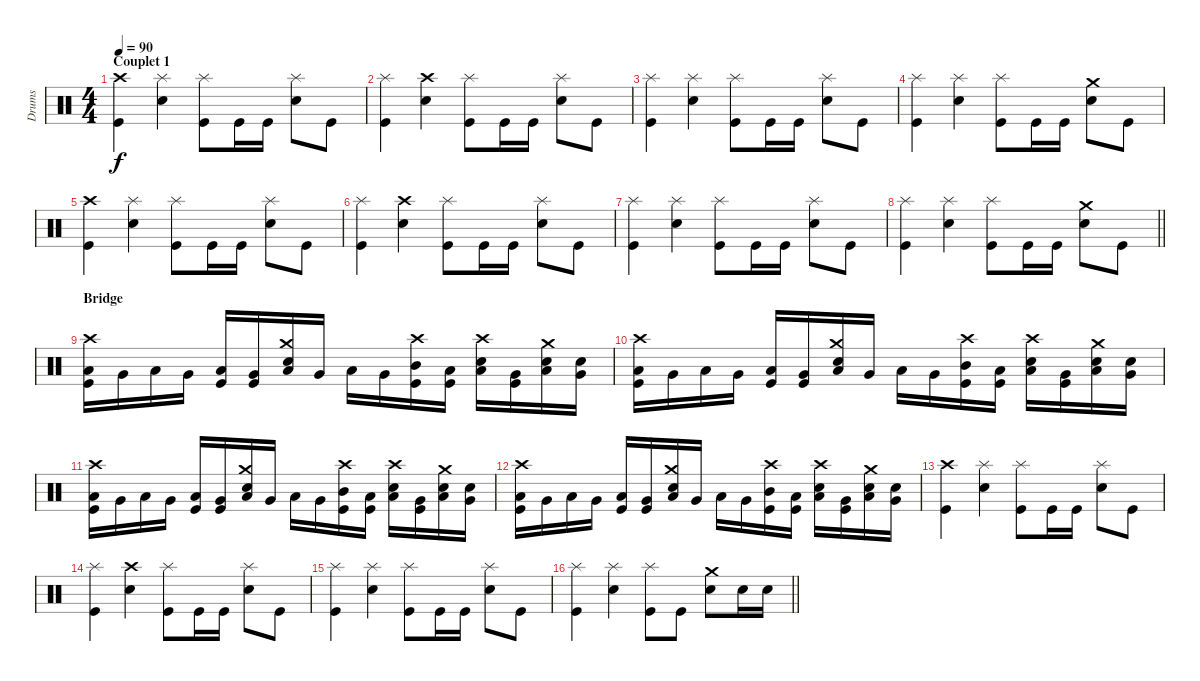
\track ("Drums" "Drums") {instrument percussion}
\staff {score}
\articulation defaults
\ts (4 4)
\section ("" "Couplet 1")
\tempo 90
\clef neutral
\ks c
("Crash high (hit)" "Kick (hit)").4{dy f} ("Splash (hit)" "Snare (hit) 2").4 ("Splash (hit)" "Kick (hit)").8 "Kick (hit)".16 "Kick (hit)".16 ("Splash (hit)" "Snare (hit) 2").8 "Kick (hit)".8 |
("Splash (hit)" "Kick (hit)").4 ("Crash high (hit)" "Snare (hit) 2").4 ("Splash (hit)" "Kick (hit)").8 "Kick (hit)".16 "Kick (hit)".16 ("Splash (hit)" "Snare (hit) 2").8 "Kick (hit)".8 |
("Splash (hit)" "Kick (hit)").4 ("Splash (hit)" "Snare (hit) 2").4 ("Splash (hit)" "Kick (hit)").8 "Kick (hit)".16 "Kick (hit)".16 ("Splash (hit)" "Snare (hit) 2").8 "Kick (hit)".8 |
("Splash (hit)" "Kick (hit)").4 ("Splash (hit)" "Snare (hit) 2").4 ("Splash (hit)" "Kick (hit)").8 "Kick (hit)".16 "Kick (hit)".16 ("Crash medium (hit)" "Snare (hit) 2").8 "Kick (hit)".8 |
("Crash high (hit)" "Kick (hit)").4 ("Splash (hit)" "Snare (hit) 2").4 ("Splash (hit)" "Kick (hit)").8 "Kick (hit)".16 "Kick (hit)".16 ("Splash (hit)" "Snare (hit) 2").8 "Kick (hit)".8 |
("Splash (hit)" "Kick (hit)").4 ("Crash high (hit)" "Snare (hit) 2").4 ("Splash (hit)" "Kick (hit)").8 "Kick (hit)".16 "Kick (hit)".16 ("Splash (hit)" "Snare (hit) 2").8 "Kick (hit)".8 |
("Splash (hit)" "Kick (hit)").4 ("Splash (hit)" "Snare (hit) 2").4 ("Splash (hit)" "Kick (hit)").8 "Kick (hit)".16 "Kick (hit)".16 ("Splash (hit)" "Snare (hit) 2").8 "Kick (hit)".8 |
\barLineRight lightlight
("Splash (hit)" "Kick (hit)").4 ("Splash (hit)" "Snare (hit) 2").4 ("Splash (hit)" "Kick (hit)").8 "Kick (hit)".16 "Kick (hit)".16 ("Crash medium (hit)" "Snare (hit) 2").8 "Kick (hit)".8 |
\section ("" "Bridge")
("Crash high (hit)" "Kick (hit)" "Low Tom (hit)").16 "Very Low Tom (hit)".16 "Low Tom (hit)".16 "Very Low Tom (hit)".16 ("Kick (hit)" "Low Tom (hit)").16 ("Kick (hit)" "Very Low Tom (hit)").16 ("Crash medium (hit)" "Snare (hit) 2" "Low Tom (hit)").16 "Very Low Tom (hit)".16 "Low Tom (hit)".16 "Very Low Tom (hit)".16 ("Crash high (hit)" "Kick (hit)" "Mid Tom (hit)").16 ("Kick (hit)" "Low Floor Tom (hit)").16 ("Crash high (hit)" "Snare (hit) 2" "Low Tom (hit)").16 ("Kick (hit)" "Very Low Tom (hit)").16 ("Crash medium (hit)" "Snare (hit) 2" "Low Tom (hit)").16 ("Snare (hit) 2" "Very Low Tom (hit)").16 |
("Crash high (hit)" "Kick (hit)" "Low Tom (hit)").16 "Very Low Tom (hit)".16 "Low Tom (hit)".16 "Very Low Tom (hit)".16 ("Kick (hit)" "Low Tom (hit)").16 ("Kick (hit)" "Very Low Tom (hit)").16 ("Crash medium (hit)" "Snare (hit) 2" "Low Tom (hit)").16 "Very Low Tom (hit)".16 "Low Tom (hit)".16 "Very Low Tom (hit)".16 ("Crash high (hit)" "Kick (hit)" "Mid Tom (hit)").16 ("Kick (hit)" "Low Floor Tom (hit)").16 ("Crash high (hit)" "Snare (hit) 2" "Low Tom (hit)").16 ("Kick (hit)" "Very Low Tom (hit)").16 ("Crash medium (hit)" "Snare (hit) 2" "Low Tom (hit)").16 ("Snare (hit) 2" "Very Low Tom (hit)").16 |
("Crash high (hit)" "Kick (hit)" "Low Tom (hit)").16 "Very Low Tom (hit)".16 "Low Tom (hit)".16 "Very Low Tom (hit)".16 ("Kick (hit)" "Low Tom (hit)").16 ("Kick (hit)" "Very Low Tom (hit)").16 ("Crash medium (hit)" "Snare (hit) 2" "Low Tom (hit)").16 "Very Low Tom (hit)".16 "Low Tom (hit)".16 "Very Low Tom (hit)".16 ("Crash high (hit)" "Kick (hit)" "Mid Tom (hit)").16 ("Kick (hit)" "Low Floor Tom (hit)").16 ("Crash high (hit)" "Snare (hit) 2" "Low Tom (hit)").16 ("Kick (hit)" "Very Low Tom (hit)").16 ("Crash medium (hit)" "Snare (hit) 2" "Low Tom (hit)").16 ("Snare (hit) 2" "Very Low Tom (hit)").16 |
("Crash high (hit)" "Kick (hit)" "Low Tom (hit)").16 "Very Low Tom (hit)".16 "Low Tom (hit)".16 "Very Low Tom (hit)".16 ("Kick (hit)" "Low Tom (hit)").16 ("Kick (hit)" "Very Low Tom (hit)").16 ("Crash medium (hit)" "Snare (hit) 2" "Low Tom (hit)").16 "Very Low Tom (hit)".16 "Low Tom (hit)".16 "Very Low Tom (hit)".16 ("Crash high (hit)" "Kick (hit)" "Mid Tom (hit)").16 ("Kick (hit)" "Low Floor Tom (hit)").16 ("Crash high (hit)" "Snare (hit) 2" "Low Tom (hit)").16 ("Kick (hit)" "Very Low Tom (hit)").16 ("Crash medium (hit)" "Snare (hit) 2" "Low Tom (hit)").16 ("Snare (hit) 2" "Very Low Tom (hit)").16 |
("Crash high (hit)" "Kick (hit)").4 ("Splash (hit)" "Snare (hit) 2").4 ("Splash (hit)" "Kick (hit)").8 "Kick (hit)".16 "Kick (hit)".16 ("Splash (hit)" "Snare (hit) 2").8 "Kick (hit)".8 |
("Splash (hit)" "Kick (hit)").4 ("Crash high (hit)" "Snare (hit) 2").4 ("Splash (hit)" "Kick (hit)").8 "Kick (hit)".16 "Kick (hit)".16 ("Splash (hit)" "Snare (hit) 2").8 "Kick (hit)".8 |
("Splash (hit)" "Kick (hit)").4 ("Splash (hit)" "Snare (hit) 2").4 ("Splash (hit)" "Kick (hit)").8 "Kick (hit)".16 "Kick (hit)".16 ("Splash (hit)" "Snare (hit) 2").8 "Kick (hit)".8 |
\barLineRight lightlight
("Splash (hit)" "Kick (hit)").4 ("Splash (hit)" "Snare (hit) 2").4 ("Splash (hit)" "Kick (hit)").8 "Kick (hit)".8 ("Crash medium (hit)" "Snare (hit) 2").8 "Snare (hit) 2".16 "Snare (hit) 2".16
